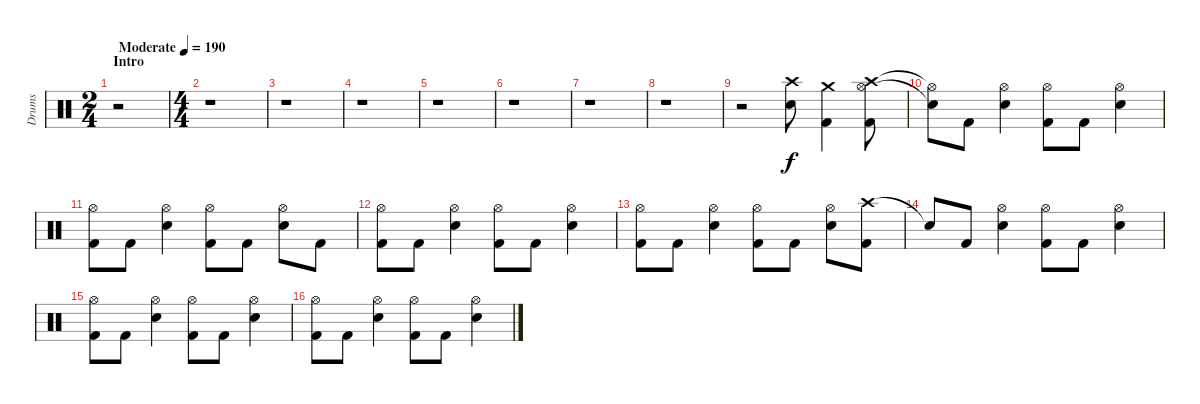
\track ("Drums" "Drums") {instrument percussion}
\staff {score}
\articulation defaults
\ts (2 4)
\section ("" "Intro")
\tempo (190 "Moderate")
\clef neutral
\ks c
r.2{dy f} |
\ts (4 4)
r.1 |
r.1 |
r.1 |
r.1 |
r.1 |
r.1 |
r.1 |
r.2 ("Crash high (hit)" "Electric Snare (hit)").8 ("Crash medium (hit)" "Kick (hit) 2").4 ("Crash high (hit)" "Hi-Hat (open)" "Kick (hit) 2").8 |
("Hi-Hat (open)"{t} "Snare (hit)"{t}).8 "Kick (hit) 2".8 ("Hi-Hat (open)" "Electric Snare (hit)").4 ("Hi-Hat (open)" "Kick (hit) 2").8 "Kick (hit) 2".8 ("Hi-Hat (open)" "Electric Snare (hit)").4 |
("Hi-Hat (open)" "Kick (hit) 2").8 "Kick (hit) 2".8 ("Hi-Hat (open)" "Electric Snare (hit)").4 ("Hi-Hat (open)" "Kick (hit) 2").8 "Kick (hit) 2".8 ("Hi-Hat (open)" "Electric Snare (hit)").8 "Kick (hit) 2".8 |
("Hi-Hat (open)" "Kick (hit) 2").8 "Kick (hit) 2".8 ("Hi-Hat (open)" "Electric Snare (hit)").4 ("Hi-Hat (open)" "Kick (hit) 2").8 "Kick (hit) 2".8 ("Hi-Hat (open)" "Electric Snare (hit)").4 |
("Hi-Hat (open)" "Kick (hit) 2").8 "Kick (hit) 2".8 ("Hi-Hat (open)" "Electric Snare (hit)").4 ("Hi-Hat (open)" "Kick (hit) 2").8 "Kick (hit) 2".8 ("Hi-Hat (open)" "Electric Snare (hit)").8 ("Crash high (hit)" "Kick (hit) 2").8 |
"Snare (hit)"{t}.8 "Kick (hit) 2".8 ("Hi-Hat (open)" "Electric Snare (hit)").4 ("Hi-Hat (open)" "Kick (hit) 2").8 "Kick (hit) 2".8 ("Hi-Hat (open)" "Electric Snare (hit)").4 |
("Hi-Hat (open)" "Kick (hit) 2").8 "Kick (hit) 2".8 ("Hi-Hat (open)" "Electric Snare (hit)").4 ("Hi-Hat (open)" "Kick (hit) 2").8 "Kick (hit) 2".8 ("Hi-Hat (open)" "Electric Snare (hit)").4 |
("Hi-Hat (open)" "Kick (hit) 2").8 "Kick (hit) 2".8 ("Hi-Hat (open)" "Electric Snare (hit)").4 ("Hi-Hat (open)" "Kick (hit) 2").8 "Kick (hit) 2".8 ("Hi-Hat (open)" "Electric Snare (hit)").4
